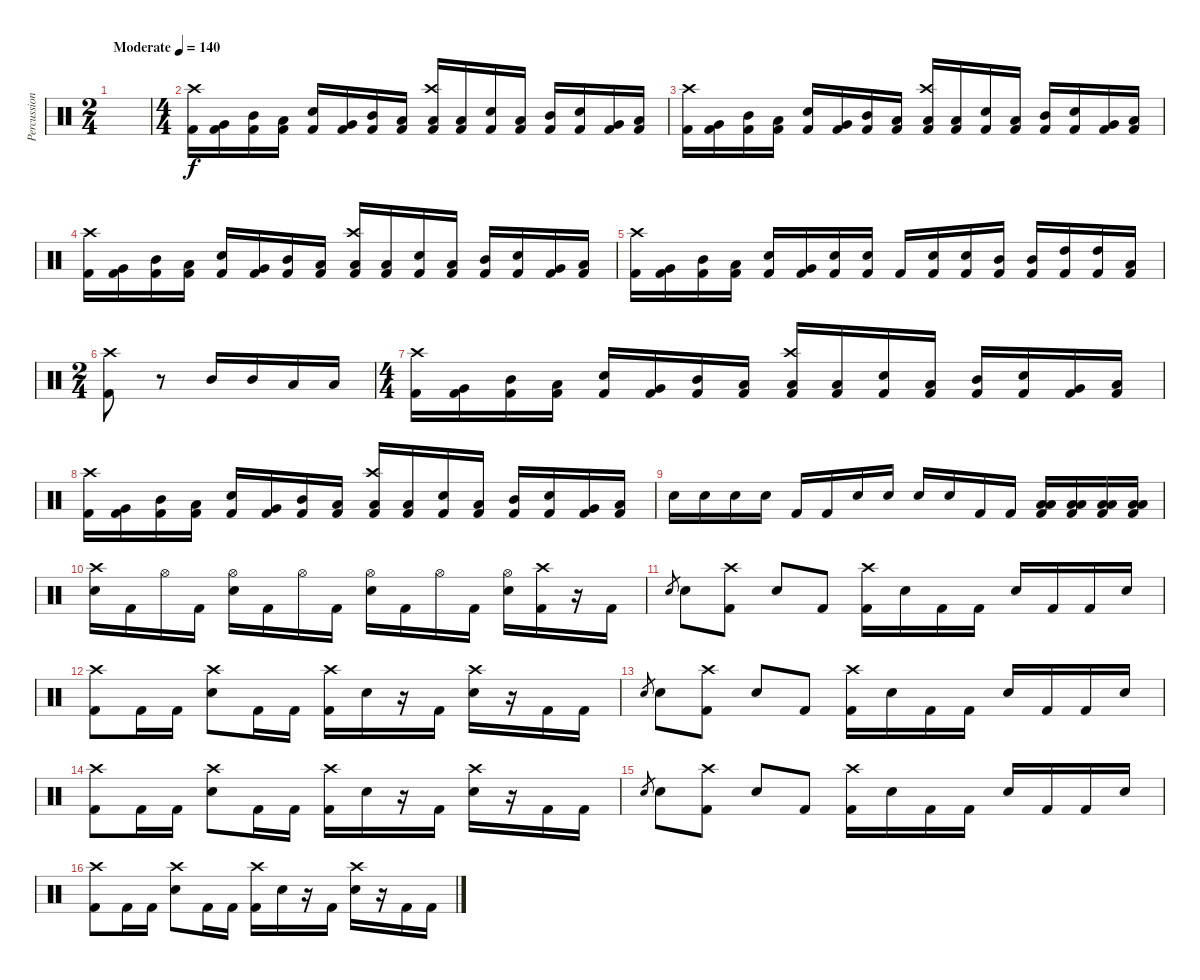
\track ("Percussions" "Percussion") {instrument percussion}
\staff {score}
\articulation defaults
\ts (2 4)
\tempo (140 "Moderate")
\clef neutral
\ks c
|
\ts (4 4)
("Kick (hit) 2" "Crash high (hit)").16 ("Kick (hit) 2" "Very Low Tom (hit)").16 ("Kick (hit) 2" "Mid Tom (hit)").16 ("Kick (hit) 2" "Low Floor Tom (hit)").16 ("Kick (hit) 2" "Electric Snare (hit)").16 ("Kick (hit) 2" "Very Low Tom (hit)").16 ("Kick (hit) 2" "Mid Tom (hit)").16 ("Kick (hit) 2" "Low Floor Tom (hit)").16 ("Kick (hit) 2" "Low Tom (hit)" "Crash high (hit)").16 ("Kick (hit) 2" "Low Floor Tom (hit)").16 ("Kick (hit) 2" "Electric Snare (hit)").16 ("Kick (hit) 2" "Low Floor Tom (hit)").16 ("Kick (hit) 2" "Mid Tom (hit)").16 ("Kick (hit) 2" "Electric Snare (hit)").16 ("Kick (hit) 2" "Very Low Tom (hit)").16 ("Kick (hit) 2" "Low Floor Tom (hit)").16 |
("Kick (hit) 2" "Crash high (hit)").16 ("Kick (hit) 2" "Very Low Tom (hit)").16 ("Kick (hit) 2" "Mid Tom (hit)").16 ("Kick (hit) 2" "Low Floor Tom (hit)").16 ("Kick (hit) 2" "Electric Snare (hit)").16 ("Kick (hit) 2" "Very Low Tom (hit)").16 ("Kick (hit) 2" "Mid Tom (hit)").16 ("Kick (hit) 2" "Low Floor Tom (hit)").16 ("Kick (hit) 2" "Low Tom (hit)" "Crash high (hit)").16 ("Kick (hit) 2" "Low Floor Tom (hit)").16 ("Kick (hit) 2" "Electric Snare (hit)").16 ("Kick (hit) 2" "Low Floor Tom (hit)").16 ("Kick (hit) 2" "Mid Tom (hit)").16 ("Kick (hit) 2" "Electric Snare (hit)").16 ("Kick (hit) 2" "Very Low Tom (hit)").16 ("Kick (hit) 2" "Low Floor Tom (hit)").16 |
("Kick (hit) 2" "Crash high (hit)").16 ("Kick (hit) 2" "Very Low Tom (hit)").16 ("Kick (hit) 2" "Mid Tom (hit)").16 ("Kick (hit) 2" "Low Floor Tom (hit)").16 ("Kick (hit) 2" "Electric Snare (hit)").16 ("Kick (hit) 2" "Very Low Tom (hit)").16 ("Kick (hit) 2" "Mid Tom (hit)").16 ("Kick (hit) 2" "Low Floor Tom (hit)").16 ("Kick (hit) 2" "Low Tom (hit)" "Crash high (hit)").16 ("Kick (hit) 2" "Low Floor Tom (hit)").16 ("Kick (hit) 2" "Electric Snare (hit)").16 ("Kick (hit) 2" "Low Floor Tom (hit)").16 ("Kick (hit) 2" "Mid Tom (hit)").16 ("Kick (hit) 2" "Electric Snare (hit)").16 ("Kick (hit) 2" "Very Low Tom (hit)").16 ("Kick (hit) 2" "Low Floor Tom (hit)").16 |
("Kick (hit) 2" "Crash high (hit)").16 ("Kick (hit) 2" "Very Low Tom (hit)").16 ("Kick (hit) 2" "Mid Tom (hit)").16 ("Kick (hit) 2" "Low Floor Tom (hit)").16 ("Kick (hit) 2" "Electric Snare (hit)").16 ("Kick (hit) 2" "Very Low Tom (hit)").16 ("Kick (hit) 2" "Electric Snare (hit)").16 ("Kick (hit) 2" "Electric Snare (hit)").16 "Kick (hit) 2".16 ("Kick (hit) 2" "Electric Snare (hit)").16 ("Kick (hit) 2" "Electric Snare (hit)").16 ("Kick (hit) 2" "Mid Tom (hit)").16 ("Kick (hit) 2" "Mid Tom (hit)").16 ("Kick (hit) 2" "High Tom (hit)").16 ("Kick (hit) 2" "High Tom (hit)").16 ("Kick (hit) 2" "Low Tom (hit)").16 |
\ts (2 4)
("Kick (hit) 2" "Crash high (hit)").8 r.8 "Mid Tom (hit)".16 "Mid Tom (hit)".16 "Low Tom (hit)".16 "Low Tom (hit)".16 |
\ts (4 4)
("Kick (hit) 2" "Crash high (hit)").16 ("Kick (hit) 2" "Very Low Tom (hit)").16 ("Kick (hit) 2" "Mid Tom (hit)").16 ("Kick (hit) 2" "Low Floor Tom (hit)").16 ("Kick (hit) 2" "Electric Snare (hit)").16 ("Kick (hit) 2" "Very Low Tom (hit)").16 ("Kick (hit) 2" "Mid Tom (hit)").16 ("Kick (hit) 2" "Low Floor Tom (hit)").16 ("Kick (hit) 2" "Low Tom (hit)" "Crash high (hit)").16 ("Kick (hit) 2" "Low Floor Tom (hit)").16 ("Kick (hit) 2" "Electric Snare (hit)").16 ("Kick (hit) 2" "Low Floor Tom (hit)").16 ("Kick (hit) 2" "Mid Tom (hit)").16 ("Kick (hit) 2" "Electric Snare (hit)").16 ("Kick (hit) 2" "Very Low Tom (hit)").16 ("Kick (hit) 2" "Low Floor Tom (hit)").16 |
("Kick (hit) 2" "Crash high (hit)").16 ("Kick (hit) 2" "Very Low Tom (hit)").16 ("Kick (hit) 2" "Mid Tom (hit)").16 ("Kick (hit) 2" "Low Floor Tom (hit)").16 ("Kick (hit) 2" "Electric Snare (hit)").16 ("Kick (hit) 2" "Very Low Tom (hit)").16 ("Kick (hit) 2" "Mid Tom (hit)").16 ("Kick (hit) 2" "Low Floor Tom (hit)").16 ("Kick (hit) 2" "Low Tom (hit)" "Crash high (hit)").16 ("Kick (hit) 2" "Low Floor Tom (hit)").16 ("Kick (hit) 2" "Electric Snare (hit)").16 ("Kick (hit) 2" "Low Floor Tom (hit)").16 ("Kick (hit) 2" "Mid Tom (hit)").16 ("Kick (hit) 2" "Electric Snare (hit)").16 ("Kick (hit) 2" "Very Low Tom (hit)").16 ("Kick (hit) 2" "Low Floor Tom (hit)").16 |
"Electric Snare (hit)".16 "Electric Snare (hit)".16 "Electric Snare (hit)".16 "Electric Snare (hit)".16 "Kick (hit) 2".16 "Kick (hit) 2".16 "Electric Snare (hit)".16 "Electric Snare (hit)".16 "Electric Snare (hit)".16 "Electric Snare (hit)".16 "Kick (hit) 2".16 "Kick (hit) 2".16 ("Kick (hit) 2" "Low Tom (hit)" "Low Floor Tom (hit)").16 ("Kick (hit) 2" "Low Tom (hit)" "Low Floor Tom (hit)").16 ("Kick (hit) 2" "Low Tom (hit)" "Low Floor Tom (hit)").16 ("Kick (hit) 2" "Low Tom (hit)" "Low Floor Tom (hit)").16 |
("Electric Snare (hit)" "Crash high (hit)").16 "Kick (hit) 2".16 "Hi-Hat (open)".16 "Kick (hit) 2".16 ("Electric Snare (hit)" "Hi-Hat (open)").16 "Kick (hit) 2".16 "Hi-Hat (open)".16 "Kick (hit) 2".16 ("Electric Snare (hit)" "Hi-Hat (open)").16 "Kick (hit) 2".16 "Hi-Hat (open)".16 "Kick (hit) 2".16 ("Electric Snare (hit)" "Hi-Hat (open)").16 ("Kick (hit) 2" "Crash high (hit)").16 r.16 "Kick (hit) 2".16 |
"Electric Snare (hit)".8{gr} "Electric Snare (hit)".8 ("Kick (hit) 2" "Crash high (hit)").8 "Electric Snare (hit)".8 "Kick (hit) 2".8 ("Kick (hit) 2" "Crash high (hit)").16 "Electric Snare (hit)".16 "Kick (hit) 2".16 "Kick (hit) 2".16 "Electric Snare (hit)".16 "Kick (hit) 2".16 "Kick (hit) 2".16 "Electric Snare (hit)".16 |
("Kick (hit) 2" "Crash high (hit)").8 "Kick (hit) 2".16 "Kick (hit) 2".16 ("Electric Snare (hit)" "Crash high (hit)").8 "Kick (hit) 2".16 "Kick (hit) 2".16 ("Kick (hit) 2" "Crash high (hit)").16 "Electric Snare (hit)".16 r.16 "Kick (hit) 2".16 ("Electric Snare (hit)" "Crash high (hit)").16 r.16 "Kick (hit) 2".16 "Kick (hit) 2".16 |
"Electric Snare (hit)".8{gr} "Electric Snare (hit)".8 ("Kick (hit) 2" "Crash high (hit)").8 "Electric Snare (hit)".8 "Kick (hit) 2".8 ("Kick (hit) 2" "Crash high (hit)").16 "Electric Snare (hit)".16 "Kick (hit) 2".16 "Kick (hit) 2".16 "Electric Snare (hit)".16 "Kick (hit) 2".16 "Kick (hit) 2".16 "Electric Snare (hit)".16 |
("Kick (hit) 2" "Crash high (hit)").8 "Kick (hit) 2".16 "Kick (hit) 2".16 ("Electric Snare (hit)" "Crash high (hit)").8 "Kick (hit) 2".16 "Kick (hit) 2".16 ("Kick (hit) 2" "Crash high (hit)").16 "Electric Snare (hit)".16 r.16 "Kick (hit) 2".16 ("Electric Snare (hit)" "Crash high (hit)").16 r.16 "Kick (hit) 2".16 "Kick (hit) 2".16 |
"Electric Snare (hit)".8{gr} "Electric Snare (hit)".8 ("Kick (hit) 2" "Crash high (hit)").8 "Electric Snare (hit)".8 "Kick (hit) 2".8 ("Kick (hit) 2" "Crash high (hit)").16 "Electric Snare (hit)".16 "Kick (hit) 2".16 "Kick (hit) 2".16 "Electric Snare (hit)".16 "Kick (hit) 2".16 "Kick (hit) 2".16 "Electric Snare (hit)".16 |
("Kick (hit) 2" "Crash high (hit)").8 "Kick (hit) 2".16 "Kick (hit) 2".16 ("Electric Snare (hit)" "Crash high (hit)").8 "Kick (hit) 2".16 "Kick (hit) 2".16 ("Kick (hit) 2" "Crash high (hit)").16 "Electric Snare (hit)".16 r.16 "Kick (hit) 2".16 ("Electric Snare (hit)" "Crash high (hit)").16 r.16 "Kick (hit) 2".16 "Kick (hit) 2".16
